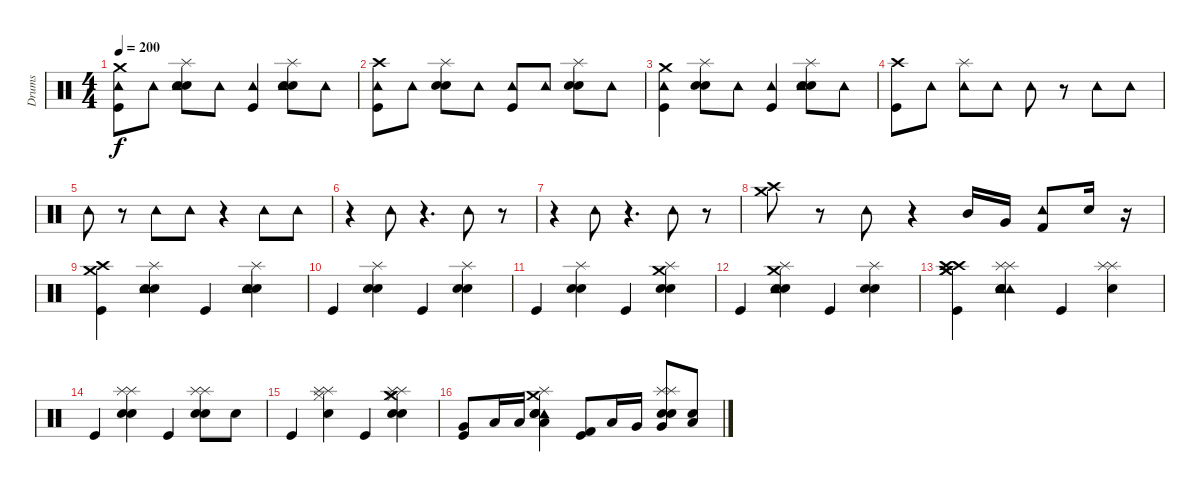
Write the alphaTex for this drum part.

\track ("Drums" "Drums") {instrument percussion}
\staff {score}
\articulation defaults
\ts (4 4)
\tempo 200
\clef neutral
\ks c
("Kick (hit)" "Tambourine (hit)" "Crash medium (hit)").8{dy f} "Tambourine (hit)".8 ("Snare (hit) 2" "Electric Snare (hit)" "Tambourine (hit)" "Splash (hit)").8 "Tambourine (hit)".8 ("Kick (hit)" "Tambourine (hit)").4 ("Snare (hit) 2" "Electric Snare (hit)" "Tambourine (hit)" "Splash (hit)").8 "Tambourine (hit)".8 |
("Kick (hit)" "Crash high (hit)" "Tambourine (hit)").8 "Tambourine (hit)".8 ("Snare (hit) 2" "Electric Snare (hit)" "Splash (hit)").8 "Tambourine (hit)".8 ("Kick (hit)" "Tambourine (hit)").8 "Tambourine (hit)".8 ("Snare (hit) 2" "Electric Snare (hit)" "Splash (hit)").8 "Tambourine (hit)".8 |
("Kick (hit)" "Tambourine (hit)" "Crash medium (hit)").4 ("Snare (hit) 2" "Electric Snare (hit)" "Splash (hit)").8 "Tambourine (hit)".8 ("Kick (hit)" "Tambourine (hit)").4 ("Snare (hit) 2" "Electric Snare (hit)" "Tambourine (hit)" "Splash (hit)").8 "Tambourine (hit)".8 |
("Kick (hit)" "Crash high (hit)").8 "Tambourine (hit)".8 ("Tambourine (hit)" "Splash (hit)").8 "Tambourine (hit)".8 "Tambourine (hit)".8 r.8 "Tambourine (hit)".8 "Tambourine (hit)".8 |
"Tambourine (hit)".8 r.8 "Tambourine (hit)".8 "Tambourine (hit)".8 r.4 "Tambourine (hit)".8 "Tambourine (hit)".8 |
r.4 "Tambourine (hit)".8 r.4{d} "Tambourine (hit)".8 r.8 |
r.4 "Tambourine (hit)".8 r.4{d} "Tambourine (hit)".8 r.8 |
("Crash high (hit)" "Crash medium (hit)").8 r.8 "Tambourine (hit)".8 r.4 "Mid Tom (hit)".16 "Very Low Tom (hit)".16 ("Kick (hit) 2" "Tambourine (hit)").8 "Snare (hit) 2".16 r.16 |
("Kick (hit)" "Crash high (hit)" "Crash medium (hit)").4 ("Snare (hit) 2" "Electric Snare (hit)" "Tambourine (hit)" "Tambourine (hit)" "Splash (hit)").4 "Kick (hit)".4 ("Snare (hit) 2" "Electric Snare (hit)" "Tambourine (hit)" "Splash (hit)").4 |
"Kick (hit)".4 ("Snare (hit) 2" "Electric Snare (hit)" "Splash (hit)").4 "Kick (hit)".4 ("Snare (hit) 2" "Electric Snare (hit)" "Splash (hit)").4 |
"Kick (hit)".4 ("Snare (hit) 2" "Electric Snare (hit)" "Splash (hit)").4 "Kick (hit)".4 ("Snare (hit) 2" "Electric Snare (hit)" "Splash (hit)" "Crash medium (hit)").4 |
"Kick (hit)".4 ("Snare (hit) 2" "Electric Snare (hit)" "Tambourine (hit)" "Splash (hit)" "Crash medium (hit)").4 "Kick (hit)".4 ("Snare (hit) 2" "Electric Snare (hit)" "Splash (hit)").4 |
("Crash high (hit)" "Crash medium (hit)" "Kick (hit)" "Crash high (hit)" "Crash medium (hit)").4 ("Tambourine (hit)" "Splash (hit)" "Snare (hit) 2" "Electric Snare (hit)" "Tambourine (hit)" "Splash (hit)").4 "Kick (hit)".4 ("Splash (hit)" "Snare (hit) 2" "Splash (hit)").4 |
"Kick (hit)".4 ("Splash (hit)" "Snare (hit) 2" "Electric Snare (hit)" "Splash (hit)").4 "Kick (hit)".4 ("Splash (hit)" "Snare (hit) 2" "Electric Snare (hit)" "Splash (hit)").8 "Electric Snare (hit)".8 |
"Kick (hit)".4 ("Splash (hit)" "Snare (hit) 2" "Hi-Hat (closed)" "Splash (hit)").4 "Kick (hit)".4 ("Splash (hit)" "Crash medium (hit)" "Snare (hit) 2" "Electric Snare (hit)" "Hi-Hat (closed)" "Splash (hit)").4 |
("Kick (hit)" "Very Low Tom (hit)").8 "Low Floor Tom (hit)".16 "Low Floor Tom (hit)".16 ("Tambourine (hit)" "Splash (hit)" "Crash medium (hit)" "Snare (hit) 2" "Electric Snare (hit)" "Low Floor Tom (hit)").4 ("Kick (hit)" "Kick (hit) 2").8 "Low Tom (hit)".16 "Very Low Tom (hit)".16 ("Splash (hit)" "Snare (hit) 2" "Electric Snare (hit)" "Very Low Tom (hit)" "Splash (hit)").8 ("Electric Snare (hit)" "Low Floor Tom (hit)").8
